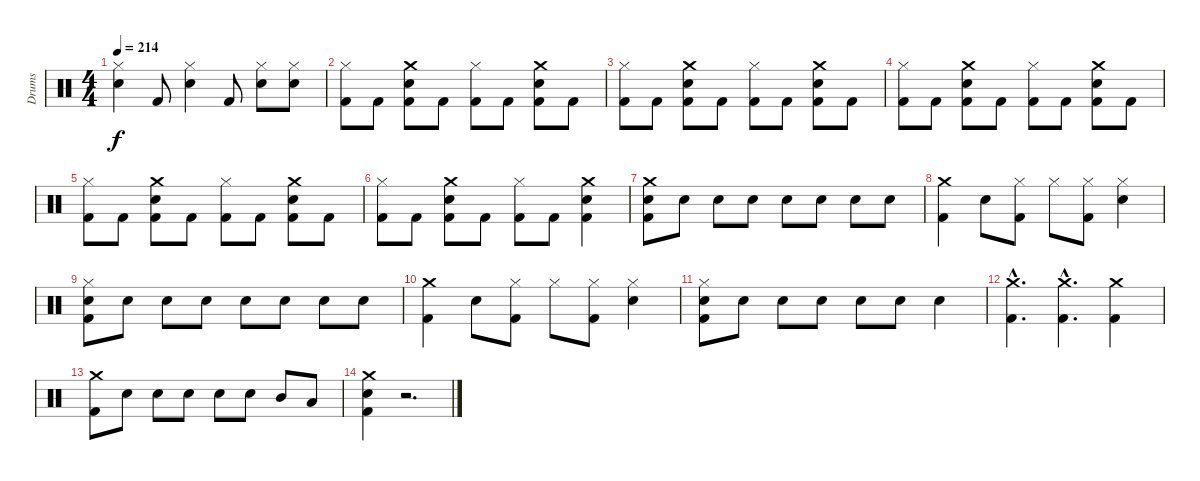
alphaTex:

\track ("Drums" "Drums") {instrument percussion}
\staff {score}
\articulation defaults
\ts (4 4)
\tempo 214
\clef neutral
\ks c
("Hi-Hat (closed)" "Electric Snare (hit)").4{dy f} "Kick (hit) 2".8 ("Hi-Hat (closed)" "Electric Snare (hit)").4 "Kick (hit) 2".8 ("Hi-Hat (closed)" "Electric Snare (hit)").8 ("Hi-Hat (closed)" "Electric Snare (hit)").8 |
("Hi-Hat (closed)" "Kick (hit) 2").8 "Kick (hit) 2".8 ("Crash medium (hit)" "Electric Snare (hit)" "Kick (hit) 2").8 "Kick (hit) 2".8 ("Hi-Hat (closed)" "Kick (hit) 2").8 "Kick (hit) 2".8 ("Crash medium (hit)" "Electric Snare (hit)" "Kick (hit) 2").8 "Kick (hit) 2".8 |
("Hi-Hat (closed)" "Kick (hit) 2").8 "Kick (hit) 2".8 ("Crash medium (hit)" "Electric Snare (hit)" "Kick (hit) 2").8 "Kick (hit) 2".8 ("Hi-Hat (closed)" "Kick (hit) 2").8 "Kick (hit) 2".8 ("Crash medium (hit)" "Electric Snare (hit)" "Kick (hit) 2").8 "Kick (hit) 2".8 |
("Hi-Hat (closed)" "Kick (hit) 2").8 "Kick (hit) 2".8 ("Crash medium (hit)" "Electric Snare (hit)" "Kick (hit) 2").8 "Kick (hit) 2".8 ("Hi-Hat (closed)" "Kick (hit) 2").8 "Kick (hit) 2".8 ("Crash medium (hit)" "Electric Snare (hit)" "Kick (hit) 2").8 "Kick (hit) 2".8 |
("Hi-Hat (closed)" "Kick (hit) 2").8 "Kick (hit) 2".8 ("Crash medium (hit)" "Electric Snare (hit)" "Kick (hit) 2").8 "Kick (hit) 2".8 ("Hi-Hat (closed)" "Kick (hit) 2").8 "Kick (hit) 2".8 ("Crash medium (hit)" "Electric Snare (hit)" "Kick (hit) 2").8 "Kick (hit) 2".8 |
("Hi-Hat (closed)" "Kick (hit) 2").8 "Kick (hit) 2".8 ("Crash medium (hit)" "Electric Snare (hit)" "Kick (hit) 2").8 "Kick (hit) 2".8 ("Hi-Hat (closed)" "Kick (hit) 2").8 "Kick (hit) 2".8 ("Crash medium (hit)" "Electric Snare (hit)" "Kick (hit) 2").4 |
("Crash medium (hit)" "Electric Snare (hit)" "Kick (hit) 2").8 "Electric Snare (hit)".8 "Electric Snare (hit)".8 "Electric Snare (hit)".8 "Electric Snare (hit)".8 "Electric Snare (hit)".8 "Electric Snare (hit)".8 "Electric Snare (hit)".8 |
("Crash medium (hit)" "Kick (hit) 2").4 "Electric Snare (hit)".8 ("Hi-Hat (closed)" "Kick (hit) 2").8 "Hi-Hat (closed)".8 ("Hi-Hat (closed)" "Kick (hit) 2").8 ("Hi-Hat (closed)" "Electric Snare (hit)").4 |
("Hi-Hat (closed)" "Electric Snare (hit)" "Kick (hit) 2").8 "Electric Snare (hit)".8 "Electric Snare (hit)".8 "Electric Snare (hit)".8 "Electric Snare (hit)".8 "Electric Snare (hit)".8 "Electric Snare (hit)".8 "Electric Snare (hit)".8 |
("Crash medium (hit)" "Kick (hit) 2").4 "Electric Snare (hit)".8 ("Hi-Hat (closed)" "Kick (hit) 2").8 "Hi-Hat (closed)".8 ("Hi-Hat (closed)" "Kick (hit) 2").8 ("Hi-Hat (closed)" "Electric Snare (hit)").4 |
("Hi-Hat (closed)" "Electric Snare (hit)" "Kick (hit) 2").8 "Electric Snare (hit)".8 "Electric Snare (hit)".8 "Electric Snare (hit)".8 "Electric Snare (hit)".8 "Electric Snare (hit)".8 "Electric Snare (hit)".4 |
("Crash medium (hit)"{hac} "Kick (hit) 2"{hac}).4{d} ("Crash medium (hit)"{hac} "Kick (hit) 2"{hac}).4{d} ("Crash medium (hit)" "Kick (hit) 2").4 |
("Crash medium (hit)" "Kick (hit) 2").8 "Electric Snare (hit)".8 "Electric Snare (hit)".8 "Electric Snare (hit)".8 "Electric Snare (hit)".8 "Electric Snare (hit)".8 "Mid Tom (hit)".8 "Low Tom (hit)".8 |
("Crash medium (hit)" "Electric Snare (hit)" "Kick (hit) 2").4 r.2{d}
